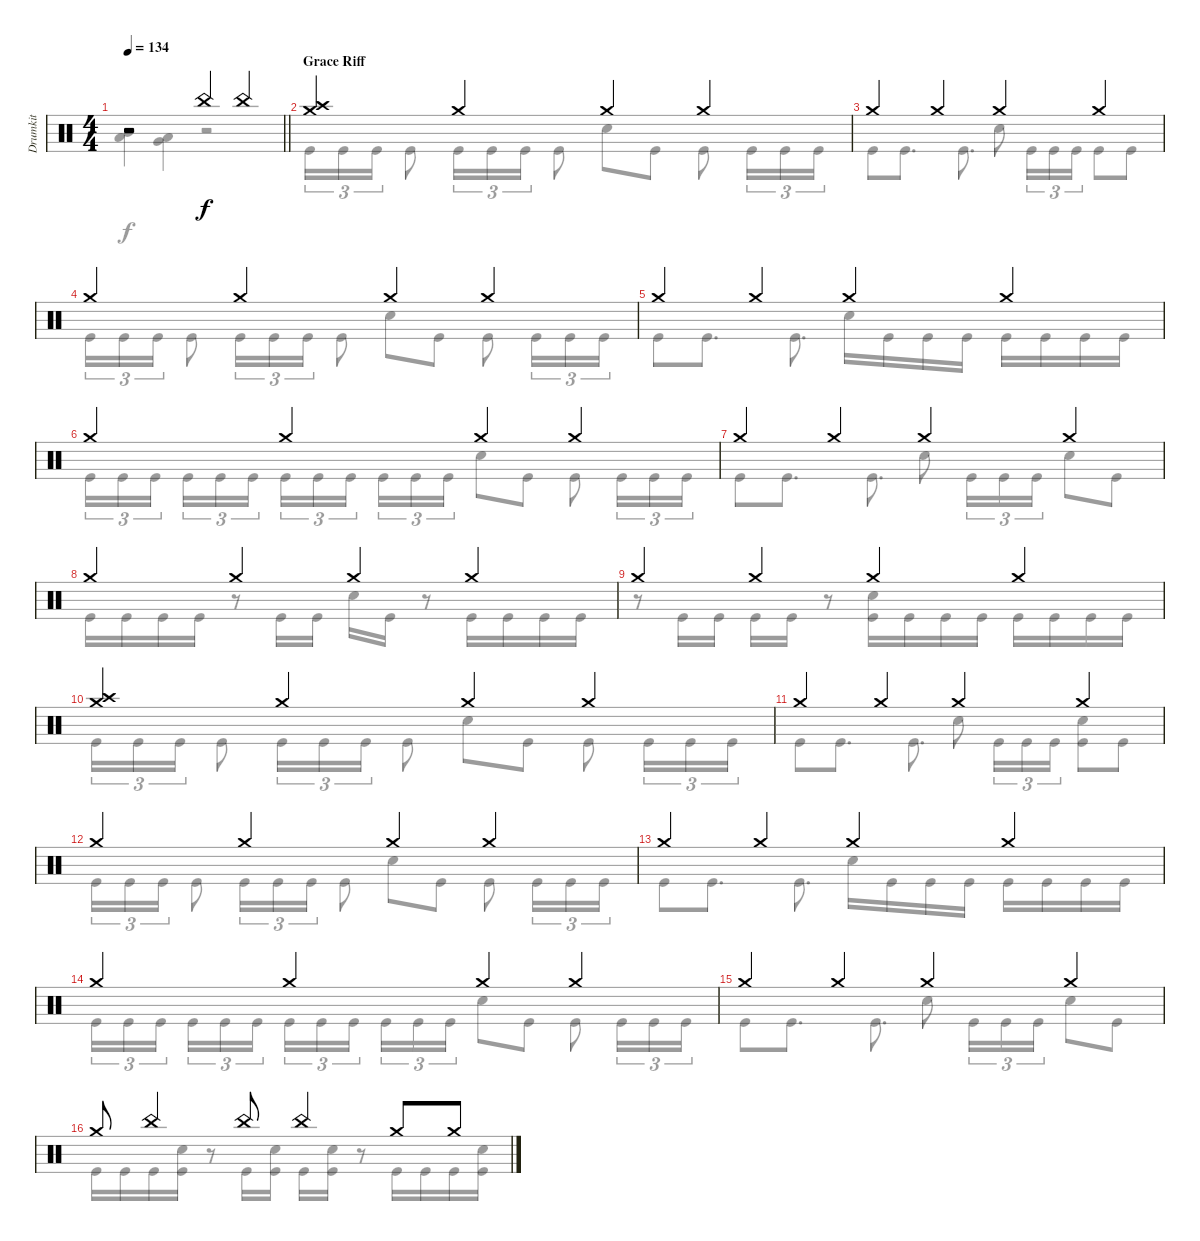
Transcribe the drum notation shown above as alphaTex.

\track ("Drumkit" "Drumkit") {instrument percussion}
\staff {score}
\articulation defaults
\voice
\ts (4 4)
\tempo 134
\clef neutral
\barLineRight lightlight
\ks c
r.2{dy f} "China (hit)".4 "China (hit)".4 |
\section ("" "Grace Riff")
("Crash high (hit)" "Crash medium (hit)").4 "Crash medium (hit)".4 "Crash medium (hit)".4 "Crash medium (hit)".4 |
"Crash medium (hit)".4 "Crash medium (hit)".4 "Crash medium (hit)".4 "Crash medium (hit)".4 |
"Crash medium (hit)".4 "Crash medium (hit)".4 "Crash medium (hit)".4 "Crash medium (hit)".4 |
"Crash medium (hit)".4 "Crash medium (hit)".4 "Crash medium (hit)".4 "Crash medium (hit)".4 |
"Crash medium (hit)".4 "Crash medium (hit)".4 "Crash medium (hit)".4 "Crash medium (hit)".4 |
"Crash medium (hit)".4 "Crash medium (hit)".4 "Crash medium (hit)".4 "Crash medium (hit)".4 |
"Crash medium (hit)".4 "Crash medium (hit)".4 "Crash medium (hit)".4 "Crash medium (hit)".4 |
"Crash medium (hit)".4 "Crash medium (hit)".4 "Crash medium (hit)".4 "Crash medium (hit)".4 |
("Crash high (hit)" "Crash medium (hit)").4 "Crash medium (hit)".4 "Crash medium (hit)".4 "Crash medium (hit)".4 |
"Crash medium (hit)".4 "Crash medium (hit)".4 "Crash medium (hit)".4 "Crash medium (hit)".4 |
"Crash medium (hit)".4 "Crash medium (hit)".4 "Crash medium (hit)".4 "Crash medium (hit)".4 |
"Crash medium (hit)".4 "Crash medium (hit)".4 "Crash medium (hit)".4 "Crash medium (hit)".4 |
"Crash medium (hit)".4 "Crash medium (hit)".4 "Crash medium (hit)".4 "Crash medium (hit)".4 |
"Crash medium (hit)".4 "Crash medium (hit)".4 "Crash medium (hit)".4 "Crash medium (hit)".4 |
"Crash medium (hit)".8 "China (hit)".4 "China (hit)".8 "China (hit)".4 "Crash medium (hit)".8 "Crash medium (hit)".8
\voice
\clef neutral
\ottava regular
\simile none
\barLineRight lightlight
\ks c
("Mid Tom (hit)" "Low Tom (hit)").4{dy f} ("Very Low Tom (hit)" "Low Floor Tom (hit)").4 r.2 |
"Kick (hit)".16{tu (3 2)} "Kick (hit)".16{tu (3 2)} "Kick (hit)".16{tu (3 2)} "Kick (hit)".8 "Kick (hit)".16{tu (3 2)} "Kick (hit)".16{tu (3 2)} "Kick (hit)".16{tu (3 2)} "Kick (hit)".8 "Snare (hit) 2".8 "Kick (hit)".8 "Kick (hit)".8 "Kick (hit)".16{tu (3 2)} "Kick (hit)".16{tu (3 2)} "Kick (hit)".16{tu (3 2)} |
"Kick (hit)".8 "Kick (hit)".8{d} "Kick (hit)".8{d} "Snare (hit) 2".8 "Kick (hit)".16{tu (3 2)} "Kick (hit)".16{tu (3 2)} "Kick (hit)".16{tu (3 2)} "Kick (hit)".8 "Kick (hit)".8 |
"Kick (hit)".16{tu (3 2)} "Kick (hit)".16{tu (3 2)} "Kick (hit)".16{tu (3 2)} "Kick (hit)".8 "Kick (hit)".16{tu (3 2)} "Kick (hit)".16{tu (3 2)} "Kick (hit)".16{tu (3 2)} "Kick (hit)".8 "Snare (hit) 2".8 "Kick (hit)".8 "Kick (hit)".8 "Kick (hit)".16{tu (3 2)} "Kick (hit)".16{tu (3 2)} "Kick (hit)".16{tu (3 2)} |
"Kick (hit)".8 "Kick (hit)".8{d} "Kick (hit)".8{d} "Snare (hit) 2".16 "Kick (hit)".16 "Kick (hit)".16 "Kick (hit)".16 "Kick (hit)".16 "Kick (hit)".16 "Kick (hit)".16 "Kick (hit)".16 |
"Kick (hit)".16{tu (3 2)} "Kick (hit)".16{tu (3 2)} "Kick (hit)".16{tu (3 2) beam splitsecondary} "Kick (hit)".16{tu (3 2)} "Kick (hit)".16{tu (3 2)} "Kick (hit)".16{tu (3 2)} "Kick (hit)".16{tu (3 2)} "Kick (hit)".16{tu (3 2)} "Kick (hit)".16{tu (3 2) beam splitsecondary} "Kick (hit)".16{tu (3 2)} "Kick (hit)".16{tu (3 2)} "Kick (hit)".16{tu (3 2)} "Snare (hit) 2".8 "Kick (hit)".8 "Kick (hit)".8 "Kick (hit)".16{tu (3 2)} "Kick (hit)".16{tu (3 2)} "Kick (hit)".16{tu (3 2)} |
"Kick (hit)".8 "Kick (hit)".8{d} "Kick (hit)".8{d} "Snare (hit) 2".8 "Kick (hit)".16{tu (3 2)} "Kick (hit)".16{tu (3 2)} "Kick (hit)".16{tu (3 2)} "Snare (hit) 2".8 "Kick (hit)".8 |
"Kick (hit)".16 "Kick (hit)".16 "Kick (hit)".16 "Kick (hit)".16 r.8 "Kick (hit)".16 "Kick (hit)".16 "Snare (hit) 2".16 "Kick (hit)".16 r.8 "Kick (hit)".16 "Kick (hit)".16 "Kick (hit)".16 "Kick (hit)".16 |
r.8 "Kick (hit)".16 "Kick (hit)".16 "Kick (hit)".16 "Kick (hit)".16 r.8 ("Snare (hit) 2" "Kick (hit)").16 "Kick (hit)".16 "Kick (hit)".16 "Kick (hit)".16 "Kick (hit)".16 "Kick (hit)".16 "Kick (hit)".16 "Kick (hit)".16 |
"Kick (hit)".16{tu (3 2)} "Kick (hit)".16{tu (3 2)} "Kick (hit)".16{tu (3 2)} "Kick (hit)".8 "Kick (hit)".16{tu (3 2)} "Kick (hit)".16{tu (3 2)} "Kick (hit)".16{tu (3 2)} "Kick (hit)".8 "Snare (hit) 2".8 "Kick (hit)".8 "Kick (hit)".8 "Kick (hit)".16{tu (3 2)} "Kick (hit)".16{tu (3 2)} "Kick (hit)".16{tu (3 2)} |
"Kick (hit)".8 "Kick (hit)".8{d} "Kick (hit)".8{d} "Snare (hit) 2".8 "Kick (hit)".16{tu (3 2)} "Kick (hit)".16{tu (3 2)} "Kick (hit)".16{tu (3 2)} ("Snare (hit) 2" "Kick (hit)").8 "Kick (hit)".8 |
"Kick (hit)".16{tu (3 2)} "Kick (hit)".16{tu (3 2)} "Kick (hit)".16{tu (3 2)} "Kick (hit)".8 "Kick (hit)".16{tu (3 2)} "Kick (hit)".16{tu (3 2)} "Kick (hit)".16{tu (3 2)} "Kick (hit)".8 "Snare (hit) 2".8 "Kick (hit)".8 "Kick (hit)".8 "Kick (hit)".16{tu (3 2)} "Kick (hit)".16{tu (3 2)} "Kick (hit)".16{tu (3 2)} |
"Kick (hit)".8 "Kick (hit)".8{d} "Kick (hit)".8{d} "Snare (hit) 2".16 "Kick (hit)".16 "Kick (hit)".16 "Kick (hit)".16 "Kick (hit)".16 "Kick (hit)".16 "Kick (hit)".16 "Kick (hit)".16 |
"Kick (hit)".16{tu (3 2)} "Kick (hit)".16{tu (3 2)} "Kick (hit)".16{tu (3 2) beam splitsecondary} "Kick (hit)".16{tu (3 2)} "Kick (hit)".16{tu (3 2)} "Kick (hit)".16{tu (3 2)} "Kick (hit)".16{tu (3 2)} "Kick (hit)".16{tu (3 2)} "Kick (hit)".16{tu (3 2) beam splitsecondary} "Kick (hit)".16{tu (3 2)} "Kick (hit)".16{tu (3 2)} "Kick (hit)".16{tu (3 2)} "Snare (hit) 2".8 "Kick (hit)".8 "Kick (hit)".8 "Kick (hit)".16{tu (3 2)} "Kick (hit)".16{tu (3 2)} "Kick (hit)".16{tu (3 2)} |
"Kick (hit)".8 "Kick (hit)".8{d} "Kick (hit)".8{d} "Snare (hit) 2".8 "Kick (hit)".16{tu (3 2)} "Kick (hit)".16{tu (3 2)} "Kick (hit)".16{tu (3 2)} "Snare (hit) 2".8 "Kick (hit)".8 |
"Kick (hit)".16 "Kick (hit)".16 "Kick (hit)".16 ("Snare (hit) 2" "Kick (hit)").16 r.8 "Kick (hit)".16 ("Snare (hit) 2" "Kick (hit)").16 "Kick (hit)".16 ("Snare (hit) 2" "Kick (hit)").16 r.8 "Kick (hit)".16 "Kick (hit)".16 "Kick (hit)".16 ("Snare (hit) 2" "Kick (hit)").16
